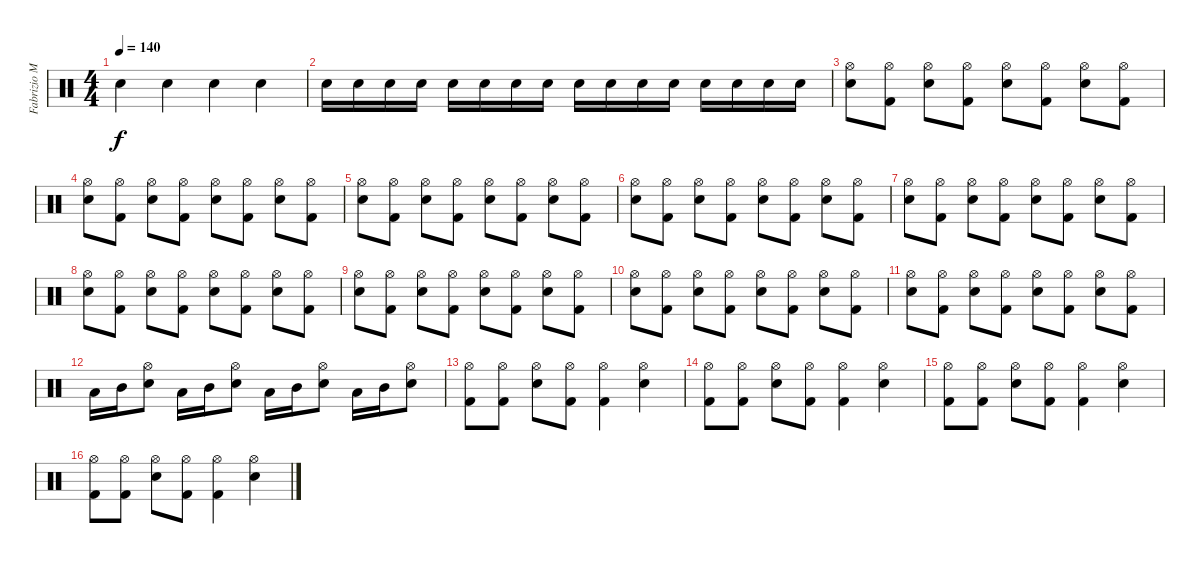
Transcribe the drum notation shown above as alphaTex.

\track ("Fabrizio Moretti" "Fabrizio M") {instrument percussion}
\staff {score}
\articulation defaults
\ts (4 4)
\tempo 140
\clef neutral
\ks c "Electric Snare (hit)".4{dy f} "Electric Snare (hit)".4 "Electric Snare (hit)".4 "Electric Snare (hit)".4
|
"Electric Snare (hit)".16 "Electric Snare (hit)".16 "Electric Snare (hit)".16 "Electric Snare (hit)".16 "Electric Snare (hit)".16 "Electric Snare (hit)".16 "Electric Snare (hit)".16 "Electric Snare (hit)".16 "Electric Snare (hit)".16 "Electric Snare (hit)".16 "Electric Snare (hit)".16 "Electric Snare (hit)".16 "Electric Snare (hit)".16 "Electric Snare (hit)".16 "Electric Snare (hit)".16 "Electric Snare (hit)".16 |
("Electric Snare (hit)" "Hi-Hat (open)").8 ("Kick (hit) 2" "Hi-Hat (open)").8 ("Electric Snare (hit)" "Hi-Hat (open)").8 ("Kick (hit) 2" "Hi-Hat (open)").8 ("Electric Snare (hit)" "Hi-Hat (open)").8 ("Kick (hit) 2" "Hi-Hat (open)").8 ("Electric Snare (hit)" "Hi-Hat (open)").8 ("Kick (hit) 2" "Hi-Hat (open)").8 |
("Electric Snare (hit)" "Hi-Hat (open)").8 ("Kick (hit) 2" "Hi-Hat (open)").8 ("Electric Snare (hit)" "Hi-Hat (open)").8 ("Kick (hit) 2" "Hi-Hat (open)").8 ("Electric Snare (hit)" "Hi-Hat (open)").8 ("Kick (hit) 2" "Hi-Hat (open)").8 ("Electric Snare (hit)" "Hi-Hat (open)").8 ("Kick (hit) 2" "Hi-Hat (open)").8 |
("Electric Snare (hit)" "Hi-Hat (open)").8 ("Kick (hit) 2" "Hi-Hat (open)").8 ("Electric Snare (hit)" "Hi-Hat (open)").8 ("Kick (hit) 2" "Hi-Hat (open)").8 ("Electric Snare (hit)" "Hi-Hat (open)").8 ("Kick (hit) 2" "Hi-Hat (open)").8 ("Electric Snare (hit)" "Hi-Hat (open)").8 ("Kick (hit) 2" "Hi-Hat (open)").8 |
("Electric Snare (hit)" "Hi-Hat (open)").8 ("Kick (hit) 2" "Hi-Hat (open)").8 ("Electric Snare (hit)" "Hi-Hat (open)").8 ("Kick (hit) 2" "Hi-Hat (open)").8 ("Electric Snare (hit)" "Hi-Hat (open)").8 ("Kick (hit) 2" "Hi-Hat (open)").8 ("Electric Snare (hit)" "Hi-Hat (open)").8 ("Kick (hit) 2" "Hi-Hat (open)").8 |
("Electric Snare (hit)" "Hi-Hat (open)").8 ("Kick (hit) 2" "Hi-Hat (open)").8 ("Electric Snare (hit)" "Hi-Hat (open)").8 ("Kick (hit) 2" "Hi-Hat (open)").8 ("Electric Snare (hit)" "Hi-Hat (open)").8 ("Kick (hit) 2" "Hi-Hat (open)").8 ("Electric Snare (hit)" "Hi-Hat (open)").8 ("Kick (hit) 2" "Hi-Hat (open)").8 |
("Electric Snare (hit)" "Hi-Hat (open)").8 ("Kick (hit) 2" "Hi-Hat (open)").8 ("Electric Snare (hit)" "Hi-Hat (open)").8 ("Kick (hit) 2" "Hi-Hat (open)").8 ("Electric Snare (hit)" "Hi-Hat (open)").8 ("Kick (hit) 2" "Hi-Hat (open)").8 ("Electric Snare (hit)" "Hi-Hat (open)").8 ("Kick (hit) 2" "Hi-Hat (open)").8 |
("Electric Snare (hit)" "Hi-Hat (open)").8 ("Kick (hit) 2" "Hi-Hat (open)").8 ("Electric Snare (hit)" "Hi-Hat (open)").8 ("Kick (hit) 2" "Hi-Hat (open)").8 ("Electric Snare (hit)" "Hi-Hat (open)").8 ("Kick (hit) 2" "Hi-Hat (open)").8 ("Electric Snare (hit)" "Hi-Hat (open)").8 ("Kick (hit) 2" "Hi-Hat (open)").8 |
("Electric Snare (hit)" "Hi-Hat (open)").8 ("Kick (hit) 2" "Hi-Hat (open)").8 ("Electric Snare (hit)" "Hi-Hat (open)").8 ("Kick (hit) 2" "Hi-Hat (open)").8 ("Electric Snare (hit)" "Hi-Hat (open)").8 ("Kick (hit) 2" "Hi-Hat (open)").8 ("Electric Snare (hit)" "Hi-Hat (open)").8 ("Kick (hit) 2" "Hi-Hat (open)").8 |
("Electric Snare (hit)" "Hi-Hat (open)").8 ("Kick (hit) 2" "Hi-Hat (open)").8 ("Electric Snare (hit)" "Hi-Hat (open)").8 ("Kick (hit) 2" "Hi-Hat (open)").8 ("Electric Snare (hit)" "Hi-Hat (open)").8 ("Kick (hit) 2" "Hi-Hat (open)").8 ("Electric Snare (hit)" "Hi-Hat (open)").8 ("Kick (hit) 2" "Hi-Hat (open)").8 |
"Low Tom (hit)".16 "Mid Tom (hit)".16 ("Electric Snare (hit)" "Hi-Hat (open)").8 "Low Tom (hit)".16 "Mid Tom (hit)".16 ("Electric Snare (hit)" "Hi-Hat (open)").8 "Low Tom (hit)".16 "Mid Tom (hit)".16 ("Electric Snare (hit)" "Hi-Hat (open)").8 "Low Tom (hit)".16 "Mid Tom (hit)".16 ("Electric Snare (hit)" "Hi-Hat (open)").8 |
("Kick (hit) 2" "Hi-Hat (open)").8 ("Kick (hit) 2" "Hi-Hat (open)").8 ("Electric Snare (hit)" "Hi-Hat (open)").8 ("Kick (hit) 2" "Hi-Hat (open)").8 ("Kick (hit) 2" "Hi-Hat (open)").4 ("Electric Snare (hit)" "Hi-Hat (open)").4 |
("Kick (hit) 2" "Hi-Hat (open)").8 ("Kick (hit) 2" "Hi-Hat (open)").8 ("Electric Snare (hit)" "Hi-Hat (open)").8 ("Kick (hit) 2" "Hi-Hat (open)").8 ("Kick (hit) 2" "Hi-Hat (open)").4 ("Electric Snare (hit)" "Hi-Hat (open)").4 |
("Kick (hit) 2" "Hi-Hat (open)").8 ("Kick (hit) 2" "Hi-Hat (open)").8 ("Electric Snare (hit)" "Hi-Hat (open)").8 ("Kick (hit) 2" "Hi-Hat (open)").8 ("Kick (hit) 2" "Hi-Hat (open)").4 ("Electric Snare (hit)" "Hi-Hat (open)").4 |
("Kick (hit) 2" "Hi-Hat (open)").8 ("Kick (hit) 2" "Hi-Hat (open)").8 ("Electric Snare (hit)" "Hi-Hat (open)").8 ("Kick (hit) 2" "Hi-Hat (open)").8 ("Kick (hit) 2" "Hi-Hat (open)").4 ("Electric Snare (hit)" "Hi-Hat (open)").4
